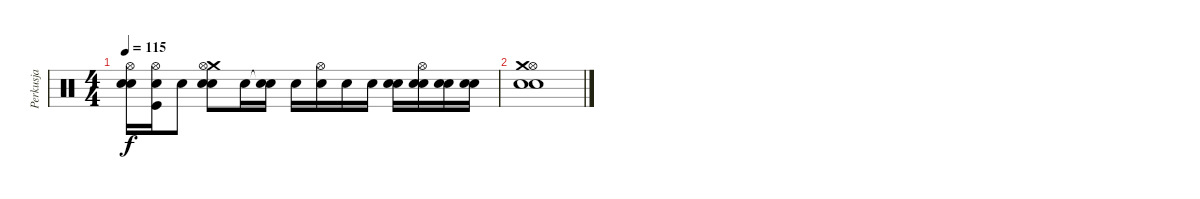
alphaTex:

\track ("Perkusja" "Perkusja") {instrument percussion}
\staff {score}
\articulation defaults
\ts (4 4)
\tempo 115
\clef neutral
\ks c
("Hi-Hat (open)" "Snare (hit) 2" "Snare (hit)").16{dy f} ("Hi-Hat (open)" "Kick (hit)" "Snare (hit)").16 "Snare (hit)".8 ("Electric Snare (hit)" "Crash medium (hit)" "Hi-Hat (open)" "Snare (hit)").8 "Snare (hit)".16 ("Snare (hit)"{t} "Snare (hit)").16 "Snare (hit)".16 ("Hi-Hat (open)" "Snare (hit)").16 "Snare (hit)".16 "Snare (hit)".16 ("Electric Snare (hit)" "Snare (hit)").16 ("Hi-Hat (open)" "Electric Snare (hit)" "Snare (hit)").16 ("Electric Snare (hit)" "Snare (hit)").16 ("Snare (hit) 2" "Snare (hit)").16 |
("Hi-Hat (open)" "Electric Snare (hit)" "Crash medium (hit)" "Snare (hit)").1
